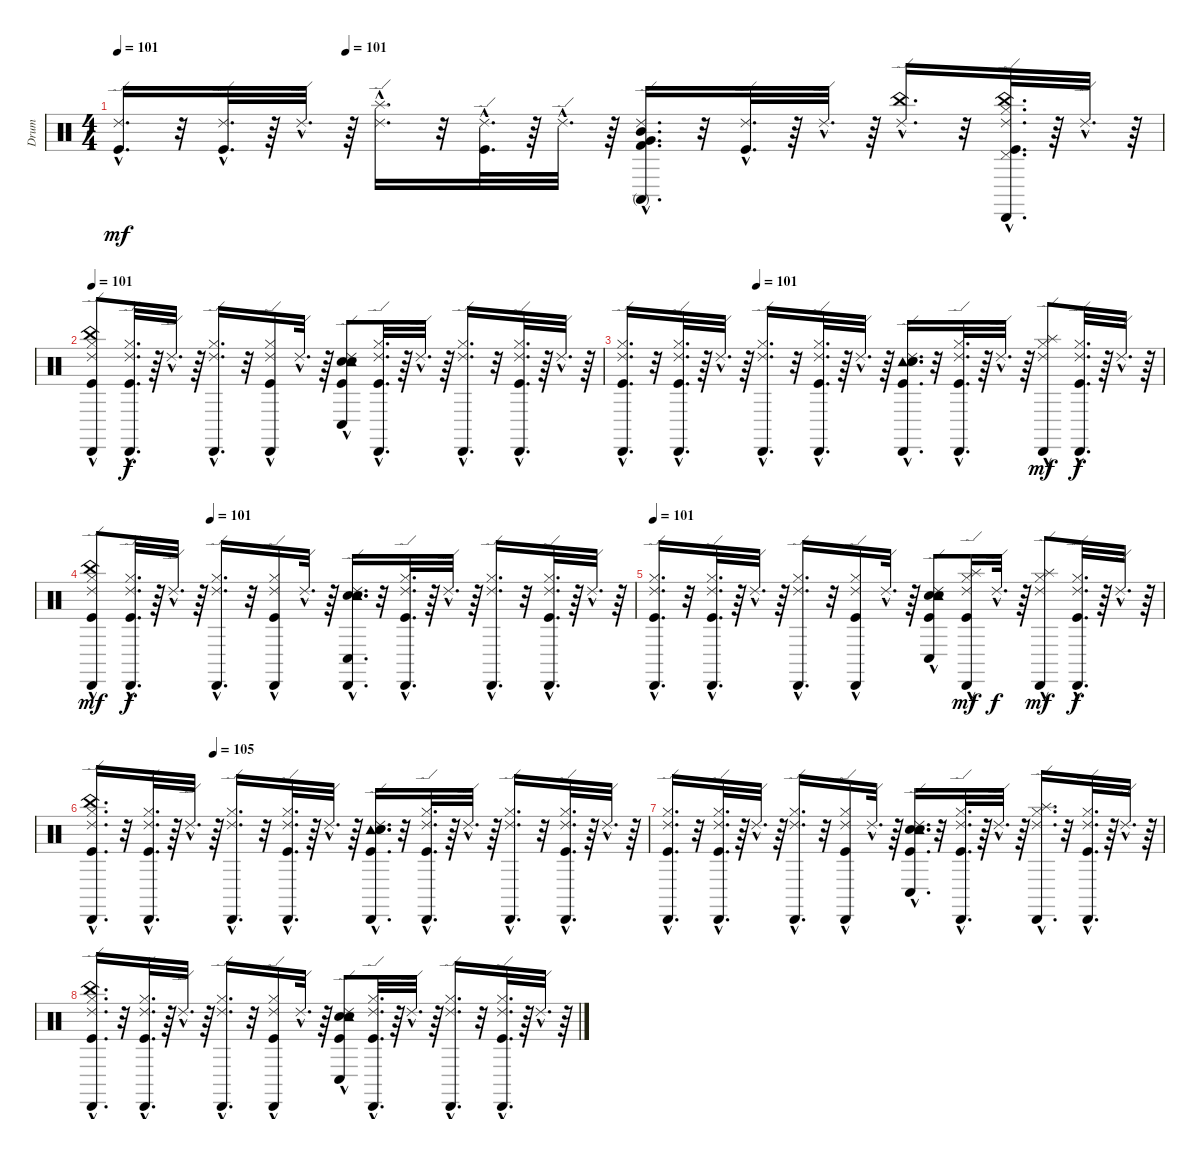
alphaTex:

\track ("Drum" "Drum") {instrument percussion}
\staff {score}
\articulation defaults
\ts (4 4)
\tempo 101
\tempo (101 0.21875)
\clef neutral
\ks c
("Kick (hit)"{hac} "Ride (edge) 2"{hac}).16{d dy mf} r.32 ("Kick (hit)"{hac} "Ride (edge) 2"{hac}).32{d} r.64 "Ride (edge) 2"{hac}.32{d} r.64 ("Splash (hit)"{hac} "Ride (edge) 2"{hac}).16{d} r.32 ("Ride (edge) 2"{hac} "Kick (hit)"{hac}).32{d} r.64 "Ride (edge) 2"{hac}.32{d} r.64 ("Conga high (mute)"{hac} "Mid Tom (hit)"{hac} "Very Low Tom (hit)"{hac} "Kick (hit) 2"{hac} "Ride (edge) 2"{hac}).16{d} r.32 ("Kick (hit)"{hac} "Ride (edge) 2"{hac}).32{d} r.64 "Ride (edge) 2"{hac}.32{d} r.64 ("China (hit)"{hac} "Ride (edge) 2"{hac}).16{d} r.32 ("Kick (hit)"{hac} "Ride (edge) 2"{hac} "China (hit)"{hac} "Pedal Hi-Hat (hit)"{hac} "Hi-Hat (closed)"{hac} "Cabasa (hit)"{hac}).32{d} r.64 "Ride (edge) 2"{hac}.32{d} r.64 |
\tempo 101
("Ride (edge) 2"{hac} "Kick (hit)"{hac} "Cabasa (hit)"{hac} "Hi-Hat (closed)"{hac} "China (hit)"{hac}).8 ("Ride (edge) 2"{hac} "Kick (hit)"{hac} "Cabasa (hit)"{hac} "Hi-Hat (closed)"{hac}).32{d dy f} r.64 "Ride (edge) 2"{hac}.32{d} r.64 ("Ride (edge) 2"{hac} "Cabasa (hit)"{hac} "Hi-Hat (closed)"{hac}).16{d} r.32 ("Ride (edge) 2"{hac} "Kick (hit)"{hac} "Cabasa (hit)"{hac} "Hi-Hat (closed)"{hac}).16 "Ride (edge) 2"{hac}.32{d} r.64 ("Conga low (hit)" "Kick (hit)"{hac} "Snare (hit) 2"{hac} "Electric Snare (hit)"{hac} "Ride (edge) 2"{hac} "Tambourine (hit)"{hac}).8 ("Ride (edge) 2"{hac} "Kick (hit)"{hac} "Cabasa (hit)"{hac} "Hi-Hat (closed)"{hac}).32{d} r.64 "Ride (edge) 2"{hac}.32{d} r.64 ("Ride (edge) 2"{hac} "Cabasa (hit)"{hac} "Hi-Hat (closed)"{hac}).16{d} r.32 ("Kick (hit)"{hac} "Ride (edge) 2"{hac} "Cabasa (hit)"{hac} "Hi-Hat (closed)"{hac}).32{d} r.64 "Ride (edge) 2"{hac}.32{d} r.64 |
\tempo (101 0.25)
("Cabasa (hit)"{hac} "Kick (hit)"{hac} "Ride (edge) 2"{hac} "Hi-Hat (closed)"{hac}).16{d} r.32 ("Cabasa (hit)"{hac} "Kick (hit)"{hac} "Ride (edge) 2"{hac} "Hi-Hat (closed)"{hac}).32{d} r.64 "Ride (edge) 2"{hac}.32{d} r.64 ("Cabasa (hit)"{hac} "Ride (edge) 2"{hac} "Hi-Hat (closed)"{hac}).16{d} r.32 ("Cabasa (hit)"{hac} "Kick (hit)"{hac} "Ride (edge) 2"{hac} "Hi-Hat (closed)"{hac}).32{d} r.64 "Ride (edge) 2"{hac}.32{d} r.64 ("Cabasa (hit)"{hac} "Tambourine (hit)"{hac} "Ride (edge) 2"{hac} "Electric Snare (hit)"{hac} "Snare (hit) 2"{hac} "Kick (hit)"{hac}).16{d} r.32 ("Cabasa (hit)"{hac} "Kick (hit)"{hac} "Ride (edge) 2"{hac} "Hi-Hat (closed)"{hac}).32{d} r.64 "Ride (edge) 2"{hac}.32{d} r.64 ("Cabasa (hit)"{hac} "Ride (edge) 2"{hac} "Hi-Hat (closed)"{hac} "Splash (hit)"{hac}).8{dy mf} ("Cabasa (hit)"{hac} "Ride (edge) 2"{hac} "Kick (hit)"{hac} "Hi-Hat (closed)"{hac}).32{d dy f} r.64 "Ride (edge) 2"{hac}.32{d} r.64 |
\tempo (101 0.21875)
("Hi-Hat (closed)"{hac} "Kick (hit)"{hac} "Ride (edge) 2"{hac} "Cabasa (hit)"{hac} "China (hit)"{hac}).8{dy mf} ("Ride (edge) 2"{hac} "Cabasa (hit)"{hac} "Kick (hit)"{hac} "Hi-Hat (closed)"{hac}).32{d dy f} r.64 "Ride (edge) 2"{hac}.32{d} r.64 ("Cabasa (hit)"{hac} "Hi-Hat (closed)"{hac} "Ride (edge) 2"{hac}).16{d} r.32 ("Kick (hit)"{hac} "Cabasa (hit)"{hac} "Hi-Hat (closed)"{hac} "Ride (edge) 2"{hac}).16 "Ride (edge) 2"{hac}.32{d} r.64 ("Snare (hit) 2"{hac} "Tambourine (hit)"{hac} "Ride (edge) 2"{hac} "Electric Snare (hit)"{hac} "Cabasa (hit)"{hac} "Conga low (hit)"{hac}).16{d} r.32 ("Kick (hit)"{hac} "Cabasa (hit)"{hac} "Ride (edge) 2"{hac} "Hi-Hat (closed)"{hac}).32{d} r.64 "Ride (edge) 2"{hac}.32{d} r.64 ("Ride (edge) 2"{hac} "Cabasa (hit)"{hac} "Hi-Hat (closed)"{hac}).16{d} r.32 ("Hi-Hat (closed)"{hac} "Cabasa (hit)"{hac} "Ride (edge) 2"{hac} "Kick (hit)"{hac}).32{d} r.64 "Ride (edge) 2"{hac}.32{d} r.64 |
\tempo 101
("Hi-Hat (closed)"{hac} "Ride (edge) 2"{hac} "Kick (hit)"{hac} "Cabasa (hit)"{hac}).16{d} r.32 ("Hi-Hat (closed)"{hac} "Ride (edge) 2"{hac} "Kick (hit)"{hac} "Cabasa (hit)"{hac}).32{d} r.64 "Ride (edge) 2"{hac}.32{d} r.64 ("Hi-Hat (closed)"{hac} "Ride (edge) 2"{hac} "Cabasa (hit)"{hac}).16{d} r.32 ("Hi-Hat (closed)"{hac} "Ride (edge) 2"{hac} "Kick (hit)"{hac} "Cabasa (hit)"{hac}).16 "Ride (edge) 2"{hac}.32{d} r.64 ("Conga low (hit)" "Kick (hit)"{hac} "Snare (hit) 2"{hac} "Electric Snare (hit)"{hac} "Ride (edge) 2"{hac} "Tambourine (hit)"{hac}).8 ("Hi-Hat (closed)"{hac} "Ride (edge) 2"{hac} "Kick (hit)"{hac} "Cabasa (hit)"{hac} "Splash (hit)"{hac}).16{dy mf} "Ride (edge) 2"{hac}.32{d dy f} r.64 ("Hi-Hat (closed)"{hac} "Ride (edge) 2"{hac} "Cabasa (hit)"{hac} "Splash (hit)"{hac}).8{dy mf} ("Hi-Hat (closed)"{hac} "Kick (hit)"{hac} "Ride (edge) 2"{hac} "Cabasa (hit)"{hac}).32{d dy f} r.64 "Ride (edge) 2"{hac}.32{d} r.64 |
\tempo (105 0.21875)
("Hi-Hat (closed)"{hac} "Cabasa (hit)"{hac} "China (hit)"{hac} "Kick (hit)"{hac} "Ride (edge) 2"{hac}).16{d} r.32 ("Hi-Hat (closed)"{hac} "Cabasa (hit)"{hac} "Kick (hit)"{hac} "Ride (edge) 2"{hac}).32{d} r.64 "Ride (edge) 2"{hac}.32{d} r.64 ("Hi-Hat (closed)"{hac} "Cabasa (hit)"{hac} "Ride (edge) 2"{hac}).16{d} r.32 ("Hi-Hat (closed)"{hac} "Cabasa (hit)"{hac} "Kick (hit)"{hac} "Ride (edge) 2"{hac}).32{d} r.64 "Ride (edge) 2"{hac}.32{d} r.64 ("Cabasa (hit)"{hac} "Tambourine (hit)"{hac} "Ride (edge) 2"{hac} "Electric Snare (hit)"{hac} "Snare (hit) 2"{hac} "Kick (hit)"{hac}).16{d} r.32 ("Hi-Hat (closed)"{hac} "Cabasa (hit)"{hac} "Kick (hit)"{hac} "Ride (edge) 2"{hac}).32{d} r.64 "Ride (edge) 2"{hac}.32{d} r.64 ("Hi-Hat (closed)"{hac} "Cabasa (hit)"{hac} "Ride (edge) 2"{hac}).16{d} r.32 ("Hi-Hat (closed)"{hac} "Cabasa (hit)"{hac} "Ride (edge) 2"{hac} "Kick (hit)"{hac}).32{d} r.64 "Ride (edge) 2"{hac}.32{d} r.64 |
("Hi-Hat (closed)"{hac} "Ride (edge) 2"{hac} "Kick (hit)"{hac} "Cabasa (hit)"{hac}).16{d} r.32 ("Hi-Hat (closed)"{hac} "Ride (edge) 2"{hac} "Kick (hit)"{hac} "Cabasa (hit)"{hac}).32{d} r.64 "Ride (edge) 2"{hac}.32{d} r.64 ("Hi-Hat (closed)"{hac} "Ride (edge) 2"{hac} "Cabasa (hit)"{hac}).16{d} r.32 ("Hi-Hat (closed)"{hac} "Ride (edge) 2"{hac} "Kick (hit)"{hac} "Cabasa (hit)"{hac}).16 "Ride (edge) 2"{hac}.32{d} r.64 ("Conga low (hit)"{hac} "Kick (hit)"{hac} "Snare (hit) 2"{hac} "Electric Snare (hit)"{hac} "Ride (edge) 2"{hac} "Tambourine (hit)"{hac}).16{d} r.32 ("Hi-Hat (closed)"{hac} "Ride (edge) 2"{hac} "Kick (hit)"{hac} "Cabasa (hit)"{hac}).32{d} r.64 "Ride (edge) 2"{hac}.32{d} r.64 ("Hi-Hat (closed)"{hac} "Ride (edge) 2"{hac} "Cabasa (hit)"{hac} "Splash (hit)"{hac}).16{d} r.32 ("Hi-Hat (closed)"{hac} "Kick (hit)"{hac} "Ride (edge) 2"{hac} "Cabasa (hit)"{hac}).32{d} r.64 "Ride (edge) 2"{hac}.32{d} r.64 |
("Hi-Hat (closed)"{hac} "Ride (edge) 2"{hac} "Kick (hit)"{hac} "China (hit)"{hac} "Cabasa (hit)"{hac}).16{d} r.32 ("Hi-Hat (closed)"{hac} "Ride (edge) 2"{hac} "Kick (hit)"{hac} "Cabasa (hit)"{hac}).32{d} r.64 "Ride (edge) 2"{hac}.32{d} r.64 ("Hi-Hat (closed)"{hac} "Ride (edge) 2"{hac} "Cabasa (hit)"{hac}).16{d} r.32 ("Hi-Hat (closed)"{hac} "Ride (edge) 2"{hac} "Kick (hit)"{hac} "Cabasa (hit)"{hac}).16 "Ride (edge) 2"{hac}.32{d} r.64 ("Conga low (hit)" "Kick (hit)"{hac} "Snare (hit) 2"{hac} "Electric Snare (hit)"{hac} "Ride (edge) 2"{hac} "Tambourine (hit)"{hac}).8 ("Hi-Hat (closed)"{hac} "Ride (edge) 2"{hac} "Kick (hit)"{hac} "Cabasa (hit)"{hac}).32{d} r.64 "Ride (edge) 2"{hac}.32{d} r.64 ("Hi-Hat (closed)"{hac} "Ride (edge) 2"{hac} "Cabasa (hit)"{hac}).16{d} r.32 ("Hi-Hat (closed)"{hac} "Kick (hit)"{hac} "Ride (edge) 2"{hac} "Cabasa (hit)"{hac}).32{d} r.64 "Ride (edge) 2"{hac}.32{d} r.64
